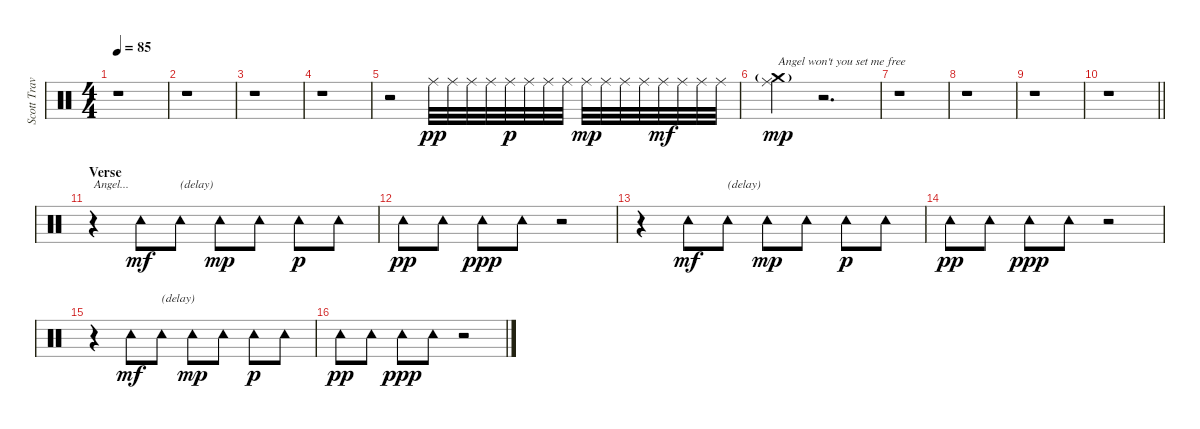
\track ("Scott Travis" "Scott Trav") {instrument percussion}
\staff {score}
\articulation defaults
\ts (4 4)
\tempo 85
\clef neutral
\ks c
r.1{dy pp} |
r.1 |
r.1 |
r.1 |
r.2 "Ride (middle)".32 "Ride (middle)".32 "Ride (middle)".32 "Ride (middle)".32 "Ride (middle)".32{dy p} "Ride (middle)".32 "Ride (middle)".32 "Ride (middle)".32 "Ride (middle)".32{dy mp} "Ride (middle)".32 "Ride (middle)".32 "Ride (middle)".32 "Ride (middle)".32{dy mf} "Ride (middle)".32 "Ride (middle)".32 "Ride (middle)".32 |
("Ride (middle)" "Crash medium (hit)"{g}).4{txt "Angel won't you set me free" dy mp} r.2{d} |
r.1 |
r.1 |
r.1 |
\barLineRight lightlight
r.1 |
\section ("" "Verse")
r.4{txt "Angel..."} "Tambourine (hit)".8{dy mf} "Tambourine (hit)".8{txt "(delay)"} "Tambourine (hit)".8{dy mp} "Tambourine (hit)".8 "Tambourine (hit)".8{dy p} "Tambourine (hit)".8 |
"Tambourine (hit)".8{dy pp} "Tambourine (hit)".8 "Tambourine (hit)".8{dy ppp} "Tambourine (hit)".8 r.2 |
r.4 "Tambourine (hit)".8{dy mf} "Tambourine (hit)".8{txt "(delay)"} "Tambourine (hit)".8{dy mp} "Tambourine (hit)".8 "Tambourine (hit)".8{dy p} "Tambourine (hit)".8 |
"Tambourine (hit)".8{dy pp} "Tambourine (hit)".8 "Tambourine (hit)".8{dy ppp} "Tambourine (hit)".8 r.2 |
r.4 "Tambourine (hit)".8{dy mf} "Tambourine (hit)".8{txt "(delay)"} "Tambourine (hit)".8{dy mp} "Tambourine (hit)".8 "Tambourine (hit)".8{dy p} "Tambourine (hit)".8 |
"Tambourine (hit)".8{dy pp} "Tambourine (hit)".8 "Tambourine (hit)".8{dy ppp} "Tambourine (hit)".8 r.2
